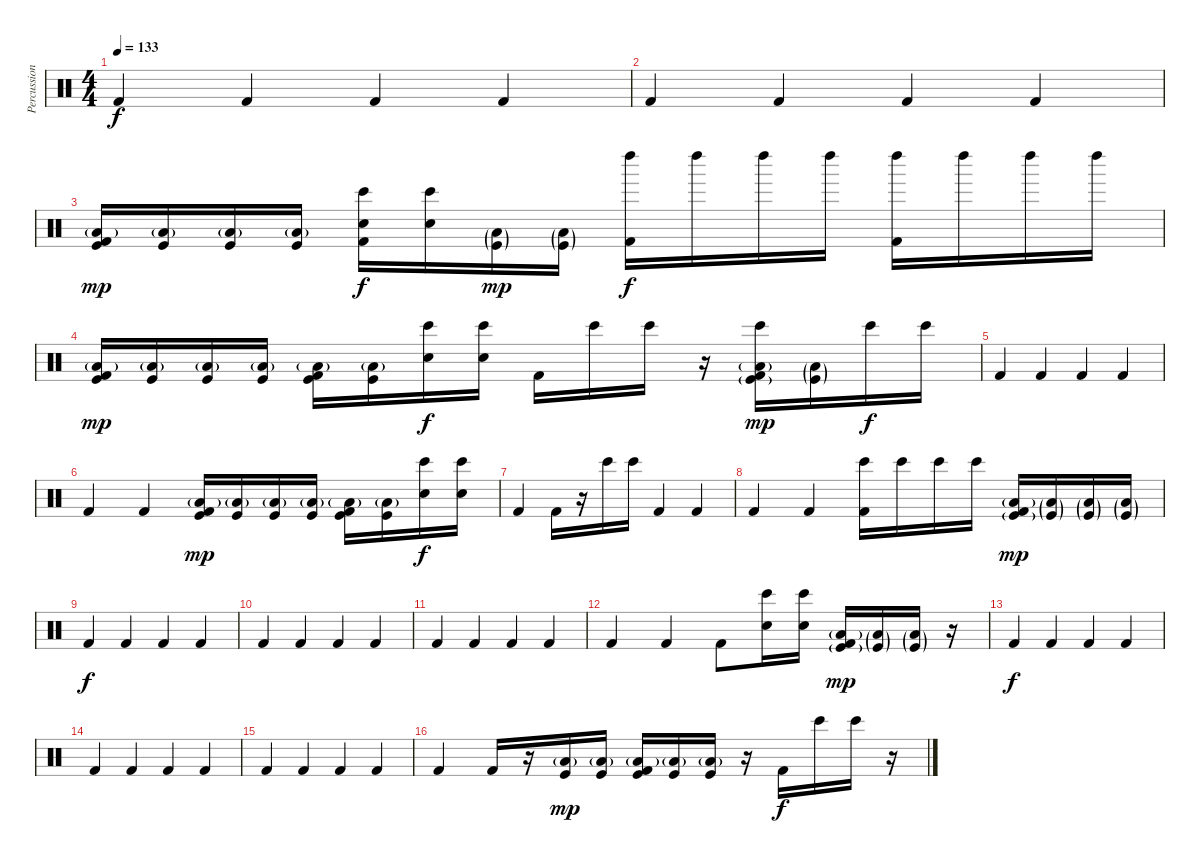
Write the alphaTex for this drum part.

\track ("Percussion" "Percussion") {instrument percussion}
\staff {score}
\articulation defaults
\ts (4 4)
\tempo 133
\clef neutral
\ks c "Kick (hit) 2".4{dy f} "Kick (hit) 2".4 "Kick (hit) 2".4 "Kick (hit) 2".4
|
"Kick (hit) 2".4 "Kick (hit) 2".4 "Kick (hit) 2".4 "Kick (hit) 2".4 |
("Low Floor Tom (hit)"{g} "Kick (hit)" "Kick (hit) 2").16{dy mp} ("Low Floor Tom (hit)"{g} "Kick (hit)").16 ("Low Floor Tom (hit)"{g} "Kick (hit)").16 ("Low Floor Tom (hit)"{g} "Kick (hit)").16 ("Hand Clap (hit)" "Bongo High (hit)" "Kick (hit) 2").16{dy f} ("Hand Clap (hit)" "Bongo High (hit)").16 ("Low Floor Tom (hit)"{g} "Kick (hit)"{g}).16{dy mp} ("Low Floor Tom (hit)"{g} "Kick (hit)"{g}).16 ("Left Maraca (hit)" "Kick (hit) 2").16{dy f} "Left Maraca (hit)".16 "Left Maraca (hit)".16 "Left Maraca (hit)".16 ("Left Maraca (hit)" "Kick (hit) 2").16 "Left Maraca (hit)".16 "Left Maraca (hit)".16 "Left Maraca (hit)".16 |
("Low Floor Tom (hit)"{g} "Kick (hit)" "Kick (hit) 2").16{dy mp} ("Low Floor Tom (hit)"{g} "Kick (hit)").16 ("Low Floor Tom (hit)"{g} "Kick (hit)").16 ("Low Floor Tom (hit)"{g} "Kick (hit)").16 ("Low Floor Tom (hit)"{g} "Kick (hit)" "Kick (hit) 2").16 ("Low Floor Tom (hit)"{g} "Kick (hit)").16 ("Hand Clap (hit)" "Bongo High (hit)").16{dy f} ("Hand Clap (hit)" "Bongo High (hit)").16 "Kick (hit) 2".16 "Bongo High (hit)".16 "Bongo High (hit)".16 r.16 ("Low Floor Tom (hit)"{g} "Kick (hit)"{g} "Bongo High (hit)" "Kick (hit) 2").16{dy mp} ("Low Floor Tom (hit)"{g} "Kick (hit)"{g}).16 "Bongo High (hit)".16{dy f} "Bongo High (hit)".16 |
"Kick (hit) 2".4 "Kick (hit) 2".4 "Kick (hit) 2".4 "Kick (hit) 2".4 |
"Kick (hit) 2".4 "Kick (hit) 2".4 ("Low Floor Tom (hit)"{g} "Kick (hit)" "Kick (hit) 2").16{dy mp} ("Low Floor Tom (hit)"{g} "Kick (hit)").16 ("Low Floor Tom (hit)"{g} "Kick (hit)").16 ("Low Floor Tom (hit)"{g} "Kick (hit)").16 ("Low Floor Tom (hit)"{g} "Kick (hit)" "Kick (hit) 2").16 ("Low Floor Tom (hit)"{g} "Kick (hit)").16 ("Hand Clap (hit)" "Bongo High (hit)").16{dy f} ("Hand Clap (hit)" "Bongo High (hit)").16 |
"Kick (hit) 2".4 "Kick (hit) 2".16 r.16 "Bongo High (hit)".16 "Bongo High (hit)".16 "Kick (hit) 2".4 "Kick (hit) 2".4 |
"Kick (hit) 2".4 "Kick (hit) 2".4 ("Bongo High (hit)" "Kick (hit) 2").16 "Bongo High (hit)".16 "Bongo High (hit)".16 "Bongo High (hit)".16 ("Low Floor Tom (hit)"{g} "Kick (hit)"{g} "Kick (hit) 2").16{dy mp} ("Low Floor Tom (hit)"{g} "Kick (hit)"{g}).16 ("Low Floor Tom (hit)"{g} "Kick (hit)"{g}).16 ("Low Floor Tom (hit)"{g} "Kick (hit)"{g}).16 |
"Kick (hit) 2".4{dy f} "Kick (hit) 2".4 "Kick (hit) 2".4 "Kick (hit) 2".4 |
"Kick (hit) 2".4 "Kick (hit) 2".4 "Kick (hit) 2".4 "Kick (hit) 2".4 |
"Kick (hit) 2".4 "Kick (hit) 2".4 "Kick (hit) 2".4 "Kick (hit) 2".4 |
"Kick (hit) 2".4 "Kick (hit) 2".4 "Kick (hit) 2".8 ("Hand Clap (hit)" "Bongo High (hit)").16 ("Hand Clap (hit)" "Bongo High (hit)").16 ("Low Floor Tom (hit)"{g} "Kick (hit)"{g} "Kick (hit) 2").16{dy mp} ("Low Floor Tom (hit)"{g} "Kick (hit)"{g}).16 ("Low Floor Tom (hit)"{g} "Kick (hit)"{g}).16 r.16 |
"Kick (hit) 2".4{dy f} "Kick (hit) 2".4 "Kick (hit) 2".4 "Kick (hit) 2".4 |
"Kick (hit) 2".4 "Kick (hit) 2".4 "Kick (hit) 2".4 "Kick (hit) 2".4 |
"Kick (hit) 2".4 "Kick (hit) 2".4 "Kick (hit) 2".4 "Kick (hit) 2".4 |
"Kick (hit) 2".4 "Kick (hit) 2".16 r.16 ("Low Floor Tom (hit)"{g} "Kick (hit)").16{dy mp} ("Low Floor Tom (hit)"{g} "Kick (hit)").16 ("Low Floor Tom (hit)"{g} "Kick (hit)" "Kick (hit) 2").16 ("Low Floor Tom (hit)"{g} "Kick (hit)").16 ("Low Floor Tom (hit)"{g} "Kick (hit)").16 r.16 "Kick (hit) 2".16{dy f} "Bongo High (hit)".16 "Bongo High (hit)".16 r.16
